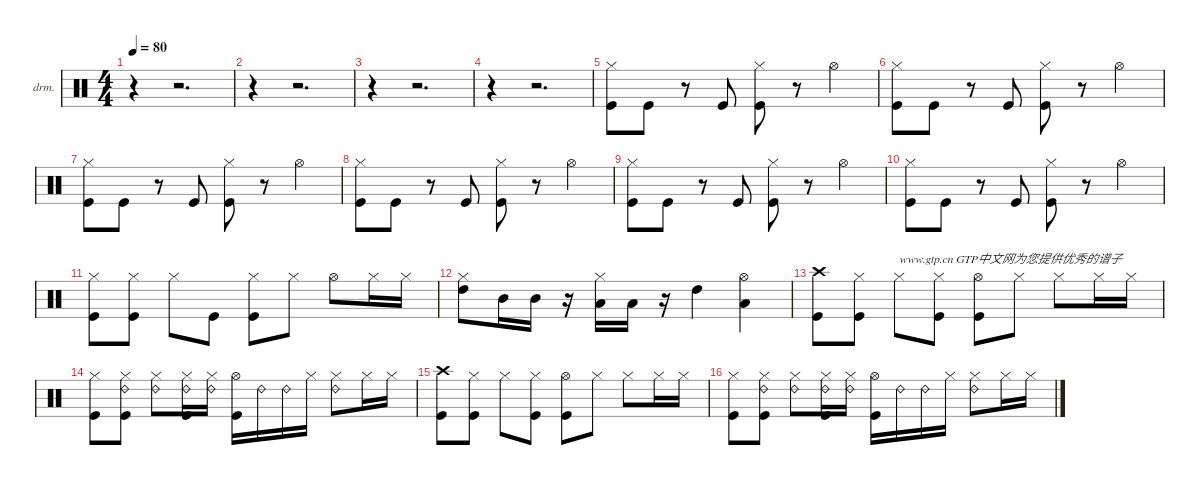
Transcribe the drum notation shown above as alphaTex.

\defaultSystemsLayout 4
\hideDynamics
\bracketExtendMode groupsimilarinstruments
\firstSystemTrackNameOrientation horizontal
\otherSystemsTrackNameOrientation horizontal
\chordDiagramsInScore
\track ("drum" "drm.") {instrument percussion}
\staff {score}
\articulation defaults
\ts (4 4)
\tempo 80
\clef neutral
\ks c
r.4{dy f} r.2{d} |
r.4 r.2{d} |
r.4 r.2{d} |
r.4 r.2{d} |
("Hi-Hat (closed)" "Kick (hit)").8 "Kick (hit)".8 r.8 "Kick (hit)".8 ("Hi-Hat (closed)" "Kick (hit)").8 r.8 "Hi-Hat (open)".4 |
("Hi-Hat (closed)" "Kick (hit)").8 "Kick (hit)".8 r.8 "Kick (hit)".8 ("Hi-Hat (closed)" "Kick (hit)").8 r.8 "Hi-Hat (open)".4 |
("Hi-Hat (closed)" "Kick (hit)").8 "Kick (hit)".8 r.8 "Kick (hit)".8 ("Hi-Hat (closed)" "Kick (hit)").8 r.8 "Hi-Hat (open)".4 |
("Hi-Hat (closed)" "Kick (hit)").8 "Kick (hit)".8 r.8 "Kick (hit)".8 ("Hi-Hat (closed)" "Kick (hit)").8 r.8 "Hi-Hat (open)".4 |
("Hi-Hat (closed)" "Kick (hit)").8 "Kick (hit)".8 r.8 "Kick (hit)".8 ("Hi-Hat (closed)" "Kick (hit)").8 r.8 "Hi-Hat (open)".4 |
("Hi-Hat (closed)" "Kick (hit)").8 "Kick (hit)".8 r.8 "Kick (hit)".8 ("Hi-Hat (closed)" "Kick (hit)").8 r.8 "Hi-Hat (open)".4 |
("Hi-Hat (closed)" "Kick (hit)").8 ("Hi-Hat (closed)" "Kick (hit)").8 "Hi-Hat (closed)".8 "Kick (hit)".8 ("Hi-Hat (closed)" "Kick (hit)").8 "Hi-Hat (closed)".8 "Hi-Hat (open)".8 "Hi-Hat (closed)".16 "Hi-Hat (closed)".16 |
("Hi-Hat (closed)" "High Tom (hit)").8 "Mid Tom (hit)".16 "Mid Tom (hit)".16 r.16 ("Hi-Hat (closed)" "Low Tom (hit)").16 "Low Tom (hit)".16 r.16 "High Tom (hit)".4 ("Hi-Hat (open)" "Low Tom (hit)").4 |
("Crash high (hit)" "Kick (hit)").8 ("Hi-Hat (closed)" "Kick (hit)").8 "Hi-Hat (closed)".8{txt "www.gtp.cn GTP中文网为您提供优秀的谱子"} ("Hi-Hat (closed)" "Kick (hit)").8 ("Hi-Hat (open)" "Kick (hit)").8 "Hi-Hat (closed)".8 "Hi-Hat (closed)".8 "Hi-Hat (closed)".16 "Hi-Hat (closed)".16 |
("Hi-Hat (closed)" "Kick (hit)").8 ("Hi-Hat (closed)" "Kick (hit)" "Ride (bell) 2").8 ("Hi-Hat (closed)" "Ride (bell) 2").8 ("Hi-Hat (closed)" "Kick (hit)" "Ride (bell) 2").16 ("Hi-Hat (closed)" "Ride (bell) 2").16 ("Hi-Hat (open)" "Kick (hit)").16 "Ride (bell) 2".16 "Ride (bell) 2".16 "Hi-Hat (closed)".16 ("Hi-Hat (closed)" "Ride (bell) 2").8 "Hi-Hat (closed)".16 "Hi-Hat (closed)".16 |
("Crash high (hit)" "Kick (hit)").8 ("Hi-Hat (closed)" "Kick (hit)").8 "Hi-Hat (closed)".8 ("Hi-Hat (closed)" "Kick (hit)").8 ("Hi-Hat (open)" "Kick (hit)").8 "Hi-Hat (closed)".8 "Hi-Hat (closed)".8 "Hi-Hat (closed)".16 "Hi-Hat (closed)".16 |
("Hi-Hat (closed)" "Kick (hit)").8 ("Hi-Hat (closed)" "Kick (hit)" "Ride (bell) 2").8 ("Hi-Hat (closed)" "Ride (bell) 2").8 ("Hi-Hat (closed)" "Kick (hit)" "Ride (bell) 2").16 ("Hi-Hat (closed)" "Ride (bell) 2").16 ("Hi-Hat (open)" "Kick (hit)").16 "Ride (bell) 2".16 "Ride (bell) 2".16 "Hi-Hat (closed)".16 ("Hi-Hat (closed)" "Ride (bell) 2").8 "Hi-Hat (closed)".16 "Hi-Hat (closed)".16
